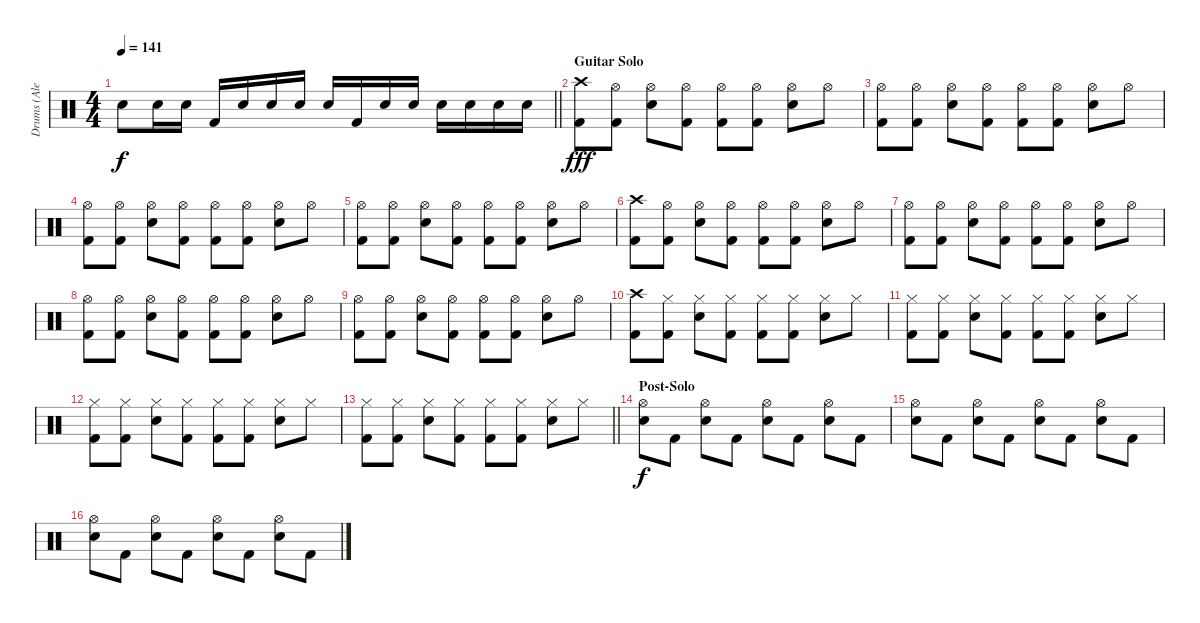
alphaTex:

\track ("Drums (Alex Van Halen)" "Drums (Ale") {instrument percussion}
\staff {score}
\articulation defaults
\ts (4 4)
\tempo 141
\clef neutral
\barLineRight lightlight
\ks c "Electric Snare (hit)".8{dy f} "Electric Snare (hit)".16 "Electric Snare (hit)".16 "Kick (hit) 2".16 "Electric Snare (hit)".16 "Electric Snare (hit)".16 "Electric Snare (hit)".16 "Electric Snare (hit)".16 "Kick (hit) 2".16 "Electric Snare (hit)".16 "Electric Snare (hit)".16 "Electric Snare (hit)".16 "Electric Snare (hit)".16 "Electric Snare (hit)".16 "Electric Snare (hit)".16
|
\section ("" "Guitar Solo")
("Crash high (hit)" "Kick (hit) 2").8{dy fff} ("Hi-Hat (open)" "Kick (hit) 2").8 ("Hi-Hat (open)" "Electric Snare (hit)").8 ("Hi-Hat (open)" "Kick (hit) 2").8 ("Hi-Hat (open)" "Kick (hit) 2").8 ("Hi-Hat (open)" "Kick (hit) 2").8 ("Hi-Hat (open)" "Electric Snare (hit)").8 "Hi-Hat (open)".8 |
("Hi-Hat (open)" "Kick (hit) 2").8 ("Hi-Hat (open)" "Kick (hit) 2").8 ("Hi-Hat (open)" "Electric Snare (hit)").8 ("Hi-Hat (open)" "Kick (hit) 2").8 ("Hi-Hat (open)" "Kick (hit) 2").8 ("Hi-Hat (open)" "Kick (hit) 2").8 ("Hi-Hat (open)" "Electric Snare (hit)").8 "Hi-Hat (open)".8 |
("Hi-Hat (open)" "Kick (hit) 2").8 ("Hi-Hat (open)" "Kick (hit) 2").8 ("Hi-Hat (open)" "Electric Snare (hit)").8 ("Hi-Hat (open)" "Kick (hit) 2").8 ("Hi-Hat (open)" "Kick (hit) 2").8 ("Hi-Hat (open)" "Kick (hit) 2").8 ("Hi-Hat (open)" "Electric Snare (hit)").8 "Hi-Hat (open)".8 |
("Hi-Hat (open)" "Kick (hit) 2").8 ("Hi-Hat (open)" "Kick (hit) 2").8 ("Hi-Hat (open)" "Electric Snare (hit)").8 ("Hi-Hat (open)" "Kick (hit) 2").8 ("Hi-Hat (open)" "Kick (hit) 2").8 ("Hi-Hat (open)" "Kick (hit) 2").8 ("Hi-Hat (open)" "Electric Snare (hit)").8 "Hi-Hat (open)".8 |
("Crash high (hit)" "Kick (hit) 2").8 ("Hi-Hat (open)" "Kick (hit) 2").8 ("Hi-Hat (open)" "Electric Snare (hit)").8 ("Hi-Hat (open)" "Kick (hit) 2").8 ("Hi-Hat (open)" "Kick (hit) 2").8 ("Hi-Hat (open)" "Kick (hit) 2").8 ("Hi-Hat (open)" "Electric Snare (hit)").8 "Hi-Hat (open)".8 |
("Hi-Hat (open)" "Kick (hit) 2").8 ("Hi-Hat (open)" "Kick (hit) 2").8 ("Hi-Hat (open)" "Electric Snare (hit)").8 ("Hi-Hat (open)" "Kick (hit) 2").8 ("Hi-Hat (open)" "Kick (hit) 2").8 ("Hi-Hat (open)" "Kick (hit) 2").8 ("Hi-Hat (open)" "Electric Snare (hit)").8 "Hi-Hat (open)".8 |
("Hi-Hat (open)" "Kick (hit) 2").8 ("Hi-Hat (open)" "Kick (hit) 2").8 ("Hi-Hat (open)" "Electric Snare (hit)").8 ("Hi-Hat (open)" "Kick (hit) 2").8 ("Hi-Hat (open)" "Kick (hit) 2").8 ("Hi-Hat (open)" "Kick (hit) 2").8 ("Hi-Hat (open)" "Electric Snare (hit)").8 "Hi-Hat (open)".8 |
("Hi-Hat (open)" "Kick (hit) 2").8 ("Hi-Hat (open)" "Kick (hit) 2").8 ("Hi-Hat (open)" "Electric Snare (hit)").8 ("Hi-Hat (open)" "Kick (hit) 2").8 ("Hi-Hat (open)" "Kick (hit) 2").8 ("Hi-Hat (open)" "Kick (hit) 2").8 ("Hi-Hat (open)" "Electric Snare (hit)").8 "Hi-Hat (open)".8 |
("Crash high (hit)" "Kick (hit) 2").8 ("Hi-Hat (closed)" "Kick (hit) 2").8 ("Hi-Hat (closed)" "Electric Snare (hit)").8 ("Hi-Hat (closed)" "Kick (hit) 2").8 ("Hi-Hat (closed)" "Kick (hit) 2").8 ("Hi-Hat (closed)" "Kick (hit) 2").8 ("Hi-Hat (closed)" "Electric Snare (hit)").8 "Hi-Hat (closed)".8 |
("Hi-Hat (closed)" "Kick (hit) 2").8 ("Hi-Hat (closed)" "Kick (hit) 2").8 ("Hi-Hat (closed)" "Electric Snare (hit)").8 ("Hi-Hat (closed)" "Kick (hit) 2").8 ("Hi-Hat (closed)" "Kick (hit) 2").8 ("Hi-Hat (closed)" "Kick (hit) 2").8 ("Hi-Hat (closed)" "Electric Snare (hit)").8 "Hi-Hat (closed)".8 |
("Hi-Hat (closed)" "Kick (hit) 2").8 ("Hi-Hat (closed)" "Kick (hit) 2").8 ("Hi-Hat (closed)" "Electric Snare (hit)").8 ("Hi-Hat (closed)" "Kick (hit) 2").8 ("Hi-Hat (closed)" "Kick (hit) 2").8 ("Hi-Hat (closed)" "Kick (hit) 2").8 ("Hi-Hat (closed)" "Electric Snare (hit)").8 "Hi-Hat (closed)".8 |
\barLineRight lightlight
("Hi-Hat (closed)" "Kick (hit) 2").8 ("Hi-Hat (closed)" "Kick (hit) 2").8 ("Hi-Hat (closed)" "Electric Snare (hit)").8 ("Hi-Hat (closed)" "Kick (hit) 2").8 ("Hi-Hat (closed)" "Kick (hit) 2").8 ("Hi-Hat (closed)" "Kick (hit) 2").8 ("Hi-Hat (closed)" "Electric Snare (hit)").8 "Hi-Hat (closed)".8 |
\section ("" "Post-Solo")
("Hi-Hat (open)" "Electric Snare (hit)").8{dy f} "Kick (hit) 2".8 ("Hi-Hat (open)" "Electric Snare (hit)").8 "Kick (hit) 2".8 ("Hi-Hat (open)" "Electric Snare (hit)").8 "Kick (hit) 2".8 ("Hi-Hat (open)" "Electric Snare (hit)").8 "Kick (hit) 2".8 |
("Hi-Hat (open)" "Electric Snare (hit)").8 "Kick (hit) 2".8 ("Hi-Hat (open)" "Electric Snare (hit)").8 "Kick (hit) 2".8 ("Hi-Hat (open)" "Electric Snare (hit)").8 "Kick (hit) 2".8 ("Hi-Hat (open)" "Electric Snare (hit)").8 "Kick (hit) 2".8 |
("Hi-Hat (open)" "Electric Snare (hit)").8 "Kick (hit) 2".8 ("Hi-Hat (open)" "Electric Snare (hit)").8 "Kick (hit) 2".8 ("Hi-Hat (open)" "Electric Snare (hit)").8 "Kick (hit) 2".8 ("Hi-Hat (open)" "Electric Snare (hit)").8 "Kick (hit) 2".8
